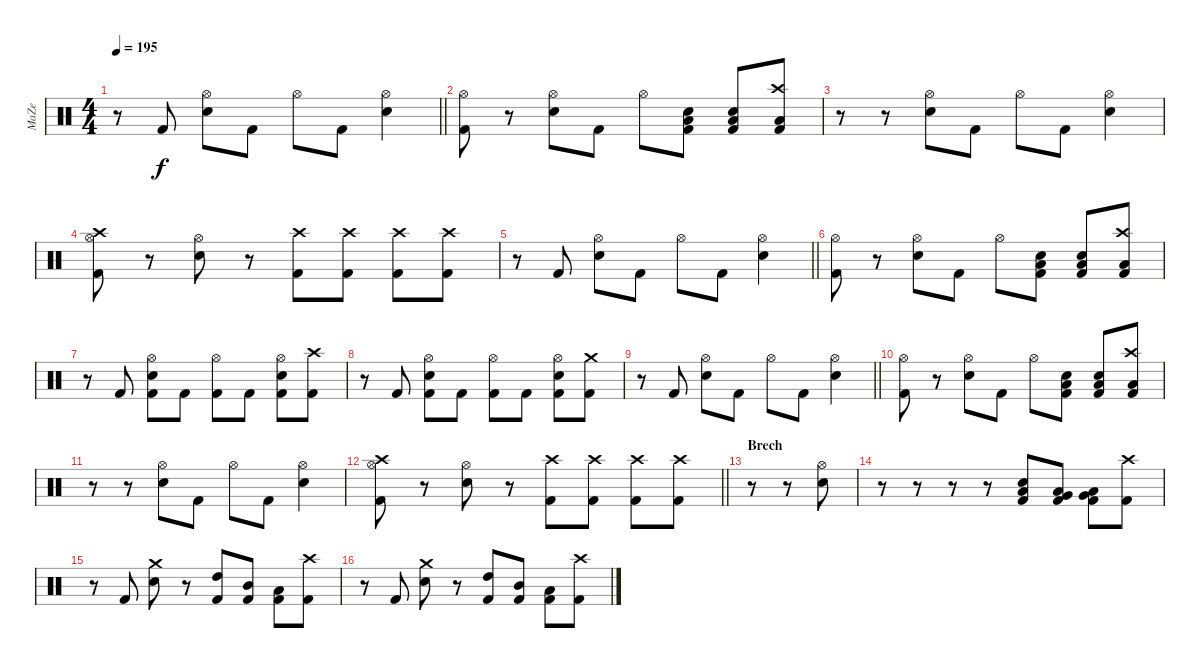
\track ("MaZe" "MaZe") {instrument percussion}
\staff {score}
\articulation defaults
\ts (4 4)
\tempo 195
\clef neutral
\barLineRight lightlight
\ks c
r.8{dy f} "Kick (hit) 2".8 ("Snare (hit) 2" "Hi-Hat (open)").8 "Kick (hit) 2".8 "Hi-Hat (open)".8 "Kick (hit) 2".8 ("Snare (hit) 2" "Hi-Hat (open)").4 |
("Hi-Hat (open)" "Kick (hit) 2").8 r.8 ("Snare (hit) 2" "Hi-Hat (open)").8 "Kick (hit) 2".8 "Hi-Hat (open)".8 ("Snare (hit) 2" "Low Tom (hit)" "Kick (hit) 2").8 ("Snare (hit) 2" "Low Tom (hit)" "Kick (hit) 2").8 ("Crash high (hit)" "Low Floor Tom (hit)" "Kick (hit) 2").8 |
r.8 r.8 ("Snare (hit) 2" "Hi-Hat (open)").8 "Kick (hit) 2".8 "Hi-Hat (open)".8 "Kick (hit) 2".8 ("Snare (hit) 2" "Hi-Hat (open)").4 |
("Crash high (hit)" "Hi-Hat (open)" "Kick (hit) 2").8 r.8 ("Snare (hit) 2" "Hi-Hat (open)").8 r.8 ("Crash high (hit)" "Kick (hit) 2").8 ("Crash high (hit)" "Kick (hit) 2").8 ("Crash high (hit)" "Kick (hit) 2").8 ("Crash high (hit)" "Kick (hit) 2").8 |
\barLineRight lightlight
r.8 "Kick (hit) 2".8 ("Snare (hit) 2" "Hi-Hat (open)").8 "Kick (hit) 2".8 "Hi-Hat (open)".8 "Kick (hit) 2".8 ("Snare (hit) 2" "Hi-Hat (open)").4 |
("Hi-Hat (open)" "Kick (hit) 2").8 r.8 ("Snare (hit) 2" "Hi-Hat (open)").8 "Kick (hit) 2".8 "Hi-Hat (open)".8 ("Snare (hit) 2" "Low Tom (hit)" "Kick (hit) 2").8 ("Snare (hit) 2" "Low Tom (hit)" "Kick (hit) 2").8 ("Crash high (hit)" "Low Floor Tom (hit)" "Kick (hit) 2").8 |
r.8 "Kick (hit) 2".8 ("Snare (hit) 2" "Hi-Hat (open)" "Kick (hit) 2").8 "Kick (hit) 2".8 ("Hi-Hat (open)" "Kick (hit) 2").8 "Kick (hit) 2".8 ("Snare (hit) 2" "Hi-Hat (open)" "Kick (hit) 2").8 ("Crash high (hit)" "Kick (hit) 2").8 |
r.8 "Kick (hit) 2".8 ("Snare (hit) 2" "Hi-Hat (open)" "Kick (hit) 2").8 "Kick (hit) 2".8 ("Hi-Hat (open)" "Kick (hit) 2").8 "Kick (hit) 2".8 ("Snare (hit) 2" "Hi-Hat (open)" "Kick (hit) 2").8 ("Crash medium (hit)" "Kick (hit) 2").8 |
\barLineRight lightlight
r.8 "Kick (hit) 2".8 ("Snare (hit) 2" "Hi-Hat (open)").8 "Kick (hit) 2".8 "Hi-Hat (open)".8 "Kick (hit) 2".8 ("Snare (hit) 2" "Hi-Hat (open)").4 |
("Hi-Hat (open)" "Kick (hit) 2").8 r.8 ("Snare (hit) 2" "Hi-Hat (open)").8 "Kick (hit) 2".8 "Hi-Hat (open)".8 ("Snare (hit) 2" "Low Tom (hit)" "Kick (hit) 2").8 ("Snare (hit) 2" "Low Tom (hit)" "Kick (hit) 2").8 ("Crash high (hit)" "Low Floor Tom (hit)" "Kick (hit) 2").8 |
r.8 r.8 ("Snare (hit) 2" "Hi-Hat (open)").8 "Kick (hit) 2".8 "Hi-Hat (open)".8 "Kick (hit) 2".8 ("Snare (hit) 2" "Hi-Hat (open)").4 |
\barLineRight lightlight
("Crash high (hit)" "Hi-Hat (open)" "Kick (hit) 2").8 r.8 ("Snare (hit) 2" "Hi-Hat (open)").8 r.8 ("Crash high (hit)" "Kick (hit) 2").8 ("Crash high (hit)" "Kick (hit) 2").8 ("Crash high (hit)" "Kick (hit) 2").8 ("Crash high (hit)" "Kick (hit) 2").8 |
\section ("" "Brech")
r.8 r.8 ("Snare (hit) 2" "Hi-Hat (open)").8 |
r.8 r.8 r.8 r.8 ("Snare (hit) 2" "Low Floor Tom (hit)" "Kick (hit) 2").8 ("Low Tom (hit)" "Very Low Tom (hit)" "Kick (hit) 2").8 ("Low Tom (hit)" "Very Low Tom (hit)" "Kick (hit) 2").8 ("Crash high (hit)" "Kick (hit) 2").8 |
r.8 "Kick (hit) 2".8 ("Crash medium (hit)" "Snare (hit) 2").8 r.8 ("High Tom (hit)" "Kick (hit) 2").8 ("Mid Tom (hit)" "Kick (hit) 2").8 ("Low Tom (hit)" "Kick (hit) 2").8 ("Crash high (hit)" "Kick (hit) 2").8 |
r.8 "Kick (hit) 2".8 ("Crash medium (hit)" "Snare (hit) 2").8 r.8 ("High Tom (hit)" "Kick (hit) 2").8 ("Mid Tom (hit)" "Kick (hit) 2").8 ("Low Tom (hit)" "Kick (hit) 2").8 ("Crash high (hit)" "Kick (hit) 2").8
